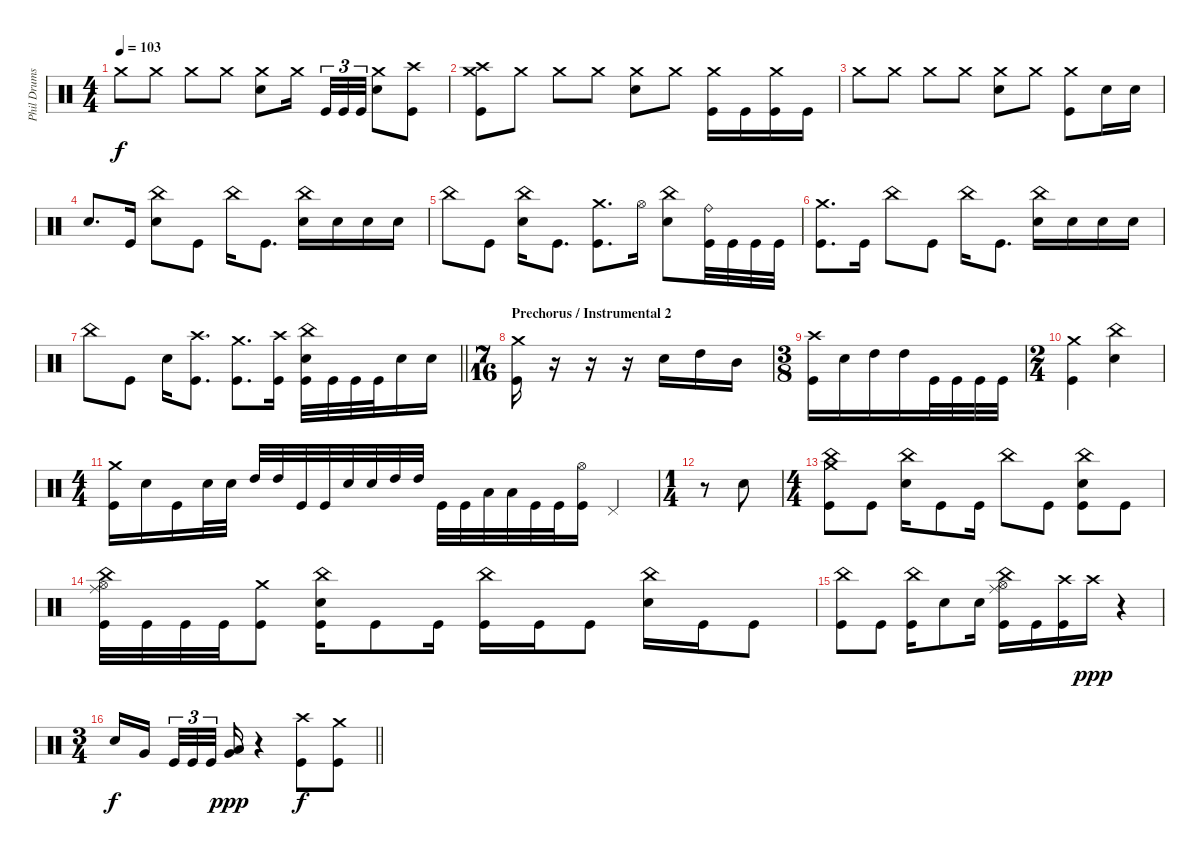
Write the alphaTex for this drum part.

\track ("Phil Drums" "Phil Drums") {instrument percussion}
\staff {score}
\articulation defaults
\ts (4 4)
\tempo 103
\clef neutral
\ks c "Crash medium (hit)".8{dy f} "Crash medium (hit)".8 "Crash medium (hit)".8 "Crash medium (hit)".8
("Crash medium (hit)" "Snare (hit) 2").8 "Crash medium (hit)".16 "Kick (hit)".32{tu (3 2)} "Kick (hit)".32{tu (3 2)} "Kick (hit)".32{tu (3 2)} ("Crash medium (hit)" "Snare (hit) 2").8 ("Crash high (hit)" "Kick (hit)").8 |
("Crash medium (hit)" "Crash high (hit)" "Kick (hit)").8 "Crash medium (hit)".8 "Crash medium (hit)".8 "Crash medium (hit)".8 ("Crash medium (hit)" "Snare (hit) 2").8 "Crash medium (hit)".8 ("Crash medium (hit)" "Kick (hit)").16 "Kick (hit)".16 ("Crash medium (hit)" "Kick (hit)").16 "Kick (hit)".16 |
"Crash medium (hit)".8 "Crash medium (hit)".8 "Crash medium (hit)".8 "Crash medium (hit)".8 ("Crash medium (hit)" "Snare (hit) 2").8 "Crash medium (hit)".8 ("Crash medium (hit)" "Kick (hit)").8 "Snare (hit) 2".16 "Snare (hit) 2".16 |
"Snare (hit) 2".8{d} "Kick (hit)".16 ("China (hit)" "Snare (hit) 2").8 "Kick (hit)".8 "China (hit)".16 "Kick (hit)".8{d} ("China (hit)" "Snare (hit) 2").16 "Snare (hit) 2".16 "Snare (hit) 2".16 "Snare (hit) 2".16 |
"China (hit)".8 "Kick (hit)".8 ("Snare (hit) 2" "China (hit)").16 "Kick (hit)".8{d} ("Crash medium (hit)" "Kick (hit)").8{d} "Hi-Hat (open)".16 ("China (hit)" "Snare (hit) 2").8 ("Ride (bell)" "Kick (hit)").32 "Kick (hit)".32 "Kick (hit)".32 "Kick (hit)".32 |
("Crash medium (hit)" "Kick (hit)").8{d} "Kick (hit)".16 "China (hit)".8 "Kick (hit)".8 "China (hit)".16 "Kick (hit)".8{d} ("China (hit)" "Snare (hit) 2").16 "Snare (hit) 2".16 "Snare (hit) 2".16 "Snare (hit) 2".16 |
\barLineRight lightlight "China (hit)".8 "Kick (hit)".8 "Snare (hit) 2".16
("Crash high (hit)" "Kick (hit)").8{d} ("Crash medium (hit)" "Kick (hit)").8{d} ("Crash high (hit)" "Kick (hit)").16 ("China (hit)" "Snare (hit) 2" "Kick (hit)").32 "Kick (hit)".32 "Kick (hit)".32 "Kick (hit)".32 "Snare (hit) 2".16 "Snare (hit) 2".16 |
\ts (7 16)
\section ("" "Prechorus / Instrumental 2")
("Crash medium (hit)" "Kick (hit)").16 r.16 r.16 r.16 "Snare (hit) 2".16 "High Tom (hit)".16 "Mid Tom (hit)".16 |
\ts (3 8)
("Crash high (hit)" "Kick (hit)").16 "Snare (hit) 2".16 "High Tom (hit)".16 "High Tom (hit)".16 "Kick (hit)".32 "Kick (hit)".32 "Kick (hit)".32 "Kick (hit)".32 |
\ts (2 4)
("Crash medium (hit)" "Kick (hit)").4 ("China (hit)" "Snare (hit) 2").4 |
\ts (4 4)
("Crash medium (hit)" "Kick (hit)").16 "Snare (hit) 2".16 "Kick (hit)".16 "Snare (hit) 2".32 "Snare (hit) 2".32 "High Tom (hit)".32 "High Tom (hit)".32 "Kick (hit)".32 "Kick (hit)".32 "Snare (hit) 2".32 "Snare (hit) 2".32 "High Tom (hit)".32 "High Tom (hit)".32 "Kick (hit)".32 "Kick (hit)".32 "Low Tom (hit)".32 "Low Tom (hit)".32 "Kick (hit)".32 "Kick (hit)".32 ("Hi-Hat (open)" "Kick (hit)").16 "Pedal Hi-Hat (hit)".4 |
\ts (1 4)
r.8 "Snare (hit) 2".8 |
\ts (4 4)
("Crash medium (hit)" "China (hit)" "Kick (hit)").8 "Kick (hit)".8 ("China (hit)" "Snare (hit) 2").16 "Kick (hit)".8 "Kick (hit)".16 "China (hit)".8 "Kick (hit)".8 ("China (hit)" "Snare (hit) 2" "Kick (hit)").8 "Kick (hit)".8 |
("China (hit)" "Ride (middle)" "Hi-Hat (open)" "Kick (hit)").32 "Kick (hit)".32 "Kick (hit)".32 "Kick (hit)".32 ("Crash medium (hit)" "Kick (hit)").8 ("China (hit)" "Snare (hit) 2" "Kick (hit)").16 "Kick (hit)".8 "Kick (hit)".16 ("China (hit)" "Kick (hit)").16 "Kick (hit)".16 "Kick (hit)".8 ("China (hit)" "Snare (hit) 2").16 "Kick (hit)".16 "Kick (hit)".8 |
("China (hit)" "Kick (hit)").8 "Kick (hit)".8 ("China (hit)" "Kick (hit)").16 "Snare (hit) 2".8 "Snare (hit) 2".16 ("China (hit)" "Ride (middle)" "Hi-Hat (open)" "Kick (hit)").16 "Kick (hit)".16 ("Crash high (hit)" "Kick (hit)").16 "Crash high (hit)".16{dy ppp} r.4 |
\ts (3 4)
\barLineRight lightlight "Snare (hit) 2".16{dy f} "Very Low Tom (hit)".16 "Kick (hit)".32{tu (3 2)} "Kick (hit)".32{tu (3 2)} "Kick (hit)".32{tu (3 2)}
("Very Low Tom (hit)" "Low Floor Tom (hit)").16{dy ppp} r.4 ("Crash high (hit)" "Kick (hit)").8{dy f} ("Crash medium (hit)" "Kick (hit)").8
